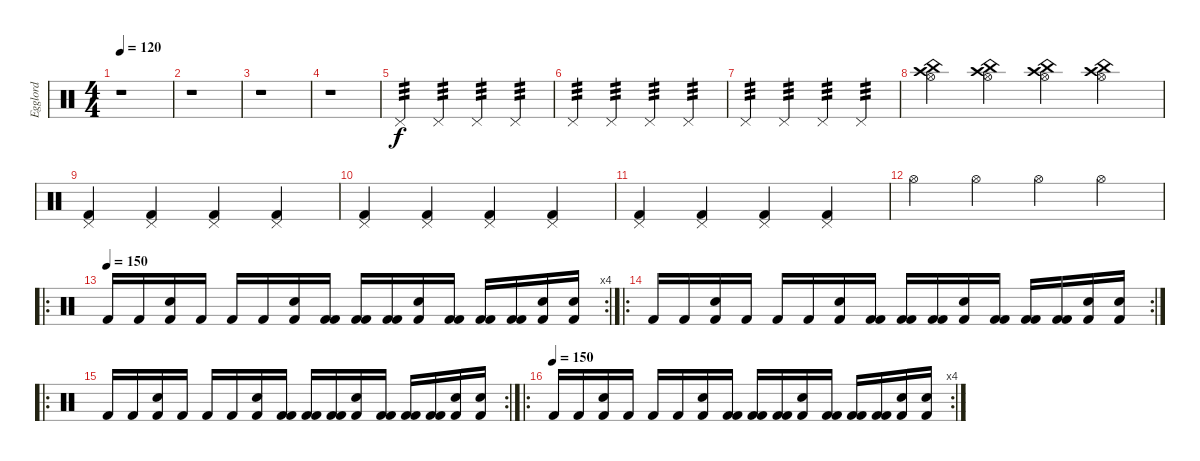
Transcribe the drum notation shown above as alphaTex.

\track ("Egglord" "Egglord") {instrument percussion}
\staff {score}
\articulation defaults
\ts (4 4)
\tempo 120
\clef neutral
\ks c
r.1{dy f} |
r.1 |
r.1 |
r.1 |
"Pedal Hi-Hat (hit)".4{tp 3} "Pedal Hi-Hat (hit)".4{tp 3} "Pedal Hi-Hat (hit)".4{tp 3} "Pedal Hi-Hat (hit)".4{tp 3} |
"Pedal Hi-Hat (hit)".4{tp 3} "Pedal Hi-Hat (hit)".4{tp 3} "Pedal Hi-Hat (hit)".4{tp 3} "Pedal Hi-Hat (hit)".4{tp 3} |
"Pedal Hi-Hat (hit)".4{tp 3} "Pedal Hi-Hat (hit)".4{tp 3} "Pedal Hi-Hat (hit)".4{tp 3} "Pedal Hi-Hat (hit)".4{tp 3} |
("China (hit)" "Hi-Hat (open)" "Crash high (hit)").4 ("China (hit)" "Hi-Hat (open)" "Crash high (hit)").4 ("China (hit)" "Hi-Hat (open)" "Crash high (hit)").4 ("China (hit)" "Hi-Hat (open)" "Crash high (hit)").4 |
("Pedal Hi-Hat (hit)" "Kick (hit) 2").4 ("Pedal Hi-Hat (hit)" "Kick (hit) 2").4 ("Pedal Hi-Hat (hit)" "Kick (hit) 2").4 ("Pedal Hi-Hat (hit)" "Kick (hit) 2").4 |
("Pedal Hi-Hat (hit)" "Kick (hit) 2").4 ("Pedal Hi-Hat (hit)" "Kick (hit) 2").4 ("Pedal Hi-Hat (hit)" "Kick (hit) 2").4 ("Pedal Hi-Hat (hit)" "Kick (hit) 2").4 |
("Pedal Hi-Hat (hit)" "Kick (hit) 2").4 ("Pedal Hi-Hat (hit)" "Kick (hit) 2").4 ("Pedal Hi-Hat (hit)" "Kick (hit) 2").4 ("Pedal Hi-Hat (hit)" "Kick (hit) 2").4 |
"Hi-Hat (open)".4 "Hi-Hat (open)".4 "Hi-Hat (open)".4 "Hi-Hat (open)".4 |
\ro
\rc 4
\tempo (150)
"Kick (hit) 2".16 "Kick (hit) 2".16 ("Electric Snare (hit)" "Kick (hit) 2").16 "Kick (hit) 2".16 "Kick (hit) 2".16 "Kick (hit) 2".16 ("Electric Snare (hit)" "Kick (hit) 2").16 ("Kick (hit) 2" "Kick (hit) 2").16 ("Kick (hit) 2" "Kick (hit) 2").16 ("Kick (hit) 2" "Kick (hit) 2").16 ("Electric Snare (hit)" "Kick (hit) 2").16 ("Kick (hit) 2" "Kick (hit) 2").16 ("Kick (hit) 2" "Kick (hit) 2").16 ("Kick (hit) 2" "Kick (hit) 2").16 ("Electric Snare (hit)" "Kick (hit) 2").16 ("Electric Snare (hit)" "Kick (hit) 2").16 |
\ro
\rc 2 "Kick (hit) 2".16 "Kick (hit) 2".16
("Electric Snare (hit)" "Kick (hit) 2").16 "Kick (hit) 2".16 "Kick (hit) 2".16 "Kick (hit) 2".16 ("Electric Snare (hit)" "Kick (hit) 2").16 ("Kick (hit) 2" "Kick (hit) 2").16 ("Kick (hit) 2" "Kick (hit) 2").16 ("Kick (hit) 2" "Kick (hit) 2").16 ("Electric Snare (hit)" "Kick (hit) 2").16 ("Kick (hit) 2" "Kick (hit) 2").16 ("Kick (hit) 2" "Kick (hit) 2").16 ("Kick (hit) 2" "Kick (hit) 2").16 ("Electric Snare (hit)" "Kick (hit) 2").16 ("Electric Snare (hit)" "Kick (hit) 2").16 |
\ro
\rc 2 "Kick (hit) 2".16 "Kick (hit) 2".16
("Electric Snare (hit)" "Kick (hit) 2").16 "Kick (hit) 2".16 "Kick (hit) 2".16 "Kick (hit) 2".16 ("Electric Snare (hit)" "Kick (hit) 2").16 ("Kick (hit) 2" "Kick (hit) 2").16 ("Kick (hit) 2" "Kick (hit) 2").16 ("Kick (hit) 2" "Kick (hit) 2").16 ("Electric Snare (hit)" "Kick (hit) 2").16 ("Kick (hit) 2" "Kick (hit) 2").16 ("Kick (hit) 2" "Kick (hit) 2").16 ("Kick (hit) 2" "Kick (hit) 2").16 ("Electric Snare (hit)" "Kick (hit) 2").16 ("Electric Snare (hit)" "Kick (hit) 2").16 |
\ro
\rc 4
\tempo (150)
"Kick (hit) 2".16 "Kick (hit) 2".16 ("Electric Snare (hit)" "Kick (hit) 2").16 "Kick (hit) 2".16 "Kick (hit) 2".16 "Kick (hit) 2".16 ("Electric Snare (hit)" "Kick (hit) 2").16 ("Kick (hit) 2" "Kick (hit) 2").16 ("Kick (hit) 2" "Kick (hit) 2").16 ("Kick (hit) 2" "Kick (hit) 2").16 ("Electric Snare (hit)" "Kick (hit) 2").16 ("Kick (hit) 2" "Kick (hit) 2").16 ("Kick (hit) 2" "Kick (hit) 2").16 ("Kick (hit) 2" "Kick (hit) 2").16 ("Electric Snare (hit)" "Kick (hit) 2").16 ("Electric Snare (hit)" "Kick (hit) 2").16
